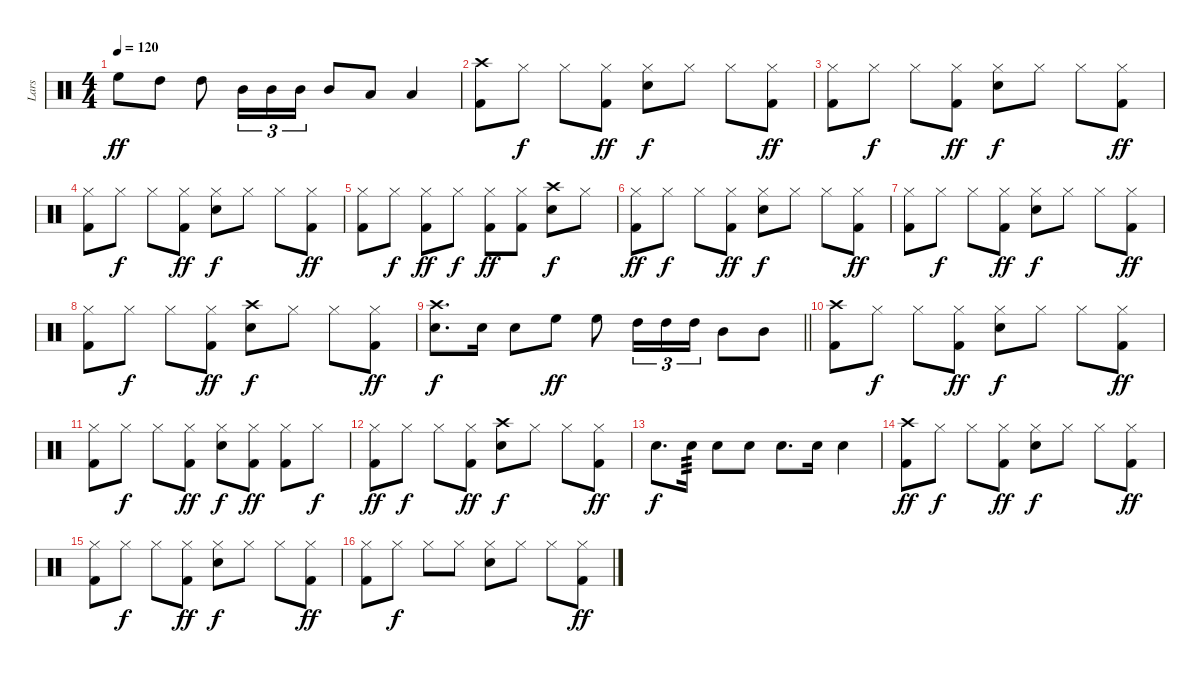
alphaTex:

\track ("Lars" "Lars") {instrument percussion}
\staff {score}
\articulation defaults
\ts (4 4)
\tempo 120
\clef neutral
\ks c "High Floor Tom (hit)".8{dy ff} "High Tom (hit)".8 "High Tom (hit)".8 "Mid Tom (hit)".16{tu (3 2)} "Mid Tom (hit)".16{tu (3 2)} "Mid Tom (hit)".16{tu (3 2)} "Mid Tom (hit)".8 "Low Tom (hit)".8 "Low Tom (hit)".4
|
("Crash high (hit)" "Kick (hit) 2").8 "Hi-Hat (closed)".8{dy f} "Hi-Hat (closed)".8 ("Hi-Hat (closed)" "Kick (hit) 2").8{dy ff} ("Hi-Hat (closed)" "Snare (hit) 2").8{dy f} "Hi-Hat (closed)".8 "Hi-Hat (closed)".8 ("Hi-Hat (closed)" "Kick (hit) 2").8{dy ff} |
("Hi-Hat (closed)" "Kick (hit) 2").8 "Hi-Hat (closed)".8{dy f} "Hi-Hat (closed)".8 ("Hi-Hat (closed)" "Kick (hit) 2").8{dy ff} ("Hi-Hat (closed)" "Snare (hit) 2").8{dy f} "Hi-Hat (closed)".8 "Hi-Hat (closed)".8 ("Hi-Hat (closed)" "Kick (hit) 2").8{dy ff} |
("Hi-Hat (closed)" "Kick (hit) 2").8 "Hi-Hat (closed)".8{dy f} "Hi-Hat (closed)".8 ("Hi-Hat (closed)" "Kick (hit) 2").8{dy ff} ("Hi-Hat (closed)" "Snare (hit) 2").8{dy f} "Hi-Hat (closed)".8 "Hi-Hat (closed)".8 ("Hi-Hat (closed)" "Kick (hit) 2").8{dy ff} |
("Hi-Hat (closed)" "Kick (hit) 2").8 "Hi-Hat (closed)".8{dy f} ("Hi-Hat (closed)" "Kick (hit) 2").8{dy ff} "Hi-Hat (closed)".8{dy f} ("Hi-Hat (closed)" "Kick (hit) 2").8{dy ff} ("Hi-Hat (closed)" "Kick (hit) 2").8 ("Crash high (hit)" "Snare (hit) 2").8{dy f} "Hi-Hat (closed)".8 |
("Hi-Hat (closed)" "Kick (hit) 2").8{dy ff} "Hi-Hat (closed)".8{dy f} "Hi-Hat (closed)".8 ("Hi-Hat (closed)" "Kick (hit) 2").8{dy ff} ("Hi-Hat (closed)" "Snare (hit) 2").8{dy f} "Hi-Hat (closed)".8 "Hi-Hat (closed)".8 ("Hi-Hat (closed)" "Kick (hit) 2").8{dy ff} |
("Hi-Hat (closed)" "Kick (hit) 2").8 "Hi-Hat (closed)".8{dy f} "Hi-Hat (closed)".8 ("Hi-Hat (closed)" "Kick (hit) 2").8{dy ff} ("Hi-Hat (closed)" "Snare (hit) 2").8{dy f} "Hi-Hat (closed)".8 "Hi-Hat (closed)".8 ("Hi-Hat (closed)" "Kick (hit) 2").8{dy ff} |
("Hi-Hat (closed)" "Kick (hit) 2").8 "Hi-Hat (closed)".8{dy f} "Hi-Hat (closed)".8 ("Hi-Hat (closed)" "Kick (hit) 2").8{dy ff} ("Crash high (hit)" "Snare (hit) 2").8{dy f} "Hi-Hat (closed)".8 "Hi-Hat (closed)".8 ("Hi-Hat (closed)" "Kick (hit) 2").8{dy ff} |
\barLineRight lightlight
("Crash high (hit)" "Snare (hit) 2").8{d dy f} "Snare (hit) 2".16 "Snare (hit) 2".8 "High Floor Tom (hit)".8{dy ff} "High Floor Tom (hit)".8 "High Tom (hit)".16{tu (3 2)} "High Tom (hit)".16{tu (3 2)} "High Tom (hit)".16{tu (3 2)} "Mid Tom (hit)".8 "Mid Tom (hit)".8 |
("Crash high (hit)" "Kick (hit) 2").8 "Hi-Hat (closed)".8{dy f} "Hi-Hat (closed)".8 ("Hi-Hat (closed)" "Kick (hit) 2").8{dy ff} ("Hi-Hat (closed)" "Snare (hit) 2").8{dy f} "Hi-Hat (closed)".8 "Hi-Hat (closed)".8 ("Hi-Hat (closed)" "Kick (hit) 2").8{dy ff} |
("Hi-Hat (closed)" "Kick (hit) 2").8 "Hi-Hat (closed)".8{dy f} "Hi-Hat (closed)".8 ("Hi-Hat (closed)" "Kick (hit) 2").8{dy ff} ("Hi-Hat (closed)" "Snare (hit) 2").8{dy f} ("Hi-Hat (closed)" "Kick (hit) 2").8{dy ff} ("Hi-Hat (closed)" "Kick (hit) 2").8 "Hi-Hat (closed)".8{dy f} |
("Hi-Hat (closed)" "Kick (hit) 2").8{dy ff} "Hi-Hat (closed)".8{dy f} "Hi-Hat (closed)".8 ("Hi-Hat (closed)" "Kick (hit) 2").8{dy ff} ("Crash high (hit)" "Snare (hit) 2").8{dy f} "Hi-Hat (closed)".8 "Hi-Hat (closed)".8 ("Hi-Hat (closed)" "Kick (hit) 2").8{dy ff} |
"Snare (hit) 2".8{d dy f} "Snare (hit) 2".16{tp 3} "Snare (hit) 2".8 "Snare (hit) 2".8 "Snare (hit) 2".8{d} "Snare (hit) 2".16 "Snare (hit) 2".4 |
("Crash high (hit)" "Kick (hit) 2").8{dy ff} "Hi-Hat (closed)".8{dy f} "Hi-Hat (closed)".8 ("Hi-Hat (closed)" "Kick (hit) 2").8{dy ff} ("Hi-Hat (closed)" "Snare (hit) 2").8{dy f} "Hi-Hat (closed)".8 "Hi-Hat (closed)".8 ("Hi-Hat (closed)" "Kick (hit) 2").8{dy ff} |
("Hi-Hat (closed)" "Kick (hit) 2").8 "Hi-Hat (closed)".8{dy f} "Hi-Hat (closed)".8 ("Hi-Hat (closed)" "Kick (hit) 2").8{dy ff} ("Hi-Hat (closed)" "Snare (hit) 2").8{dy f} "Hi-Hat (closed)".8 "Hi-Hat (closed)".8 ("Hi-Hat (closed)" "Kick (hit) 2").8{dy ff} |
("Hi-Hat (closed)" "Kick (hit) 2").8 "Hi-Hat (closed)".8{dy f} "Hi-Hat (closed)".8 "Hi-Hat (closed)".8 ("Hi-Hat (closed)" "Snare (hit) 2").8 "Hi-Hat (closed)".8 "Hi-Hat (closed)".8 ("Hi-Hat (closed)" "Kick (hit) 2").8{dy ff}
